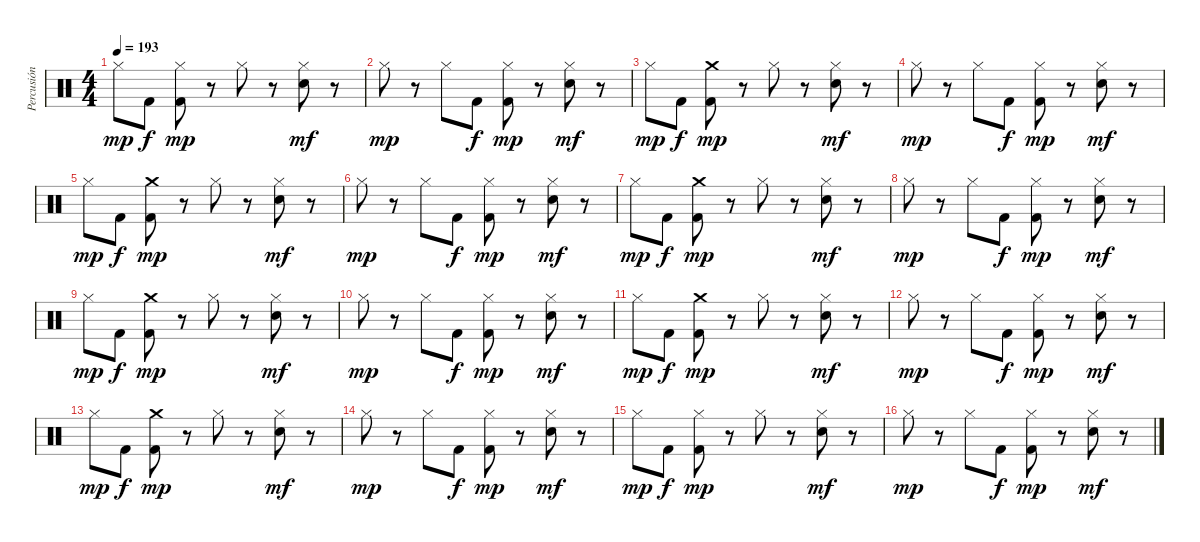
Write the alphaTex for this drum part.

\track ("Percusión" "Percusión") {instrument percussion}
\staff {score}
\articulation defaults
\ts (4 4)
\tempo 193
\clef neutral
\ks c "Hi-Hat (closed)".8{dy mp} "Kick (hit) 2".8{dy f}
("Hi-Hat (closed)" "Kick (hit) 2").8{dy mp} r.8 "Hi-Hat (closed)".8 r.8 ("Hi-Hat (closed)" "Electric Snare (hit)").8{dy mf} r.8 |
"Hi-Hat (closed)".8{dy mp} r.8 "Hi-Hat (closed)".8 "Kick (hit) 2".8{dy f} ("Hi-Hat (closed)" "Kick (hit) 2").8{dy mp} r.8 ("Hi-Hat (closed)" "Electric Snare (hit)").8{dy mf} r.8 |
"Hi-Hat (closed)".8{dy mp} "Kick (hit) 2".8{dy f} ("Crash medium (hit)" "Kick (hit) 2").8{dy mp} r.8 "Hi-Hat (closed)".8 r.8 ("Hi-Hat (closed)" "Electric Snare (hit)").8{dy mf} r.8 |
"Hi-Hat (closed)".8{dy mp} r.8 "Hi-Hat (closed)".8 "Kick (hit) 2".8{dy f} ("Hi-Hat (closed)" "Kick (hit) 2").8{dy mp} r.8 ("Hi-Hat (closed)" "Electric Snare (hit)").8{dy mf} r.8 |
"Hi-Hat (closed)".8{dy mp} "Kick (hit) 2".8{dy f} ("Crash medium (hit)" "Kick (hit) 2").8{dy mp} r.8 "Hi-Hat (closed)".8 r.8 ("Hi-Hat (closed)" "Electric Snare (hit)").8{dy mf} r.8 |
"Hi-Hat (closed)".8{dy mp} r.8 "Hi-Hat (closed)".8 "Kick (hit) 2".8{dy f} ("Hi-Hat (closed)" "Kick (hit) 2").8{dy mp} r.8 ("Hi-Hat (closed)" "Electric Snare (hit)").8{dy mf} r.8 |
"Hi-Hat (closed)".8{dy mp} "Kick (hit) 2".8{dy f} ("Crash medium (hit)" "Kick (hit) 2").8{dy mp} r.8 "Hi-Hat (closed)".8 r.8 ("Hi-Hat (closed)" "Electric Snare (hit)").8{dy mf} r.8 |
"Hi-Hat (closed)".8{dy mp} r.8 "Hi-Hat (closed)".8 "Kick (hit) 2".8{dy f} ("Hi-Hat (closed)" "Kick (hit) 2").8{dy mp} r.8 ("Hi-Hat (closed)" "Electric Snare (hit)").8{dy mf} r.8 |
"Hi-Hat (closed)".8{dy mp} "Kick (hit) 2".8{dy f} ("Crash medium (hit)" "Kick (hit) 2").8{dy mp} r.8 "Hi-Hat (closed)".8 r.8 ("Hi-Hat (closed)" "Electric Snare (hit)").8{dy mf} r.8 |
"Hi-Hat (closed)".8{dy mp} r.8 "Hi-Hat (closed)".8 "Kick (hit) 2".8{dy f} ("Hi-Hat (closed)" "Kick (hit) 2").8{dy mp} r.8 ("Hi-Hat (closed)" "Electric Snare (hit)").8{dy mf} r.8 |
"Hi-Hat (closed)".8{dy mp} "Kick (hit) 2".8{dy f} ("Crash medium (hit)" "Kick (hit) 2").8{dy mp} r.8 "Hi-Hat (closed)".8 r.8 ("Hi-Hat (closed)" "Electric Snare (hit)").8{dy mf} r.8 |
"Hi-Hat (closed)".8{dy mp} r.8 "Hi-Hat (closed)".8 "Kick (hit) 2".8{dy f} ("Hi-Hat (closed)" "Kick (hit) 2").8{dy mp} r.8 ("Hi-Hat (closed)" "Electric Snare (hit)").8{dy mf} r.8 |
"Hi-Hat (closed)".8{dy mp} "Kick (hit) 2".8{dy f} ("Crash medium (hit)" "Kick (hit) 2").8{dy mp} r.8 "Hi-Hat (closed)".8 r.8 ("Hi-Hat (closed)" "Electric Snare (hit)").8{dy mf} r.8 |
"Hi-Hat (closed)".8{dy mp} r.8 "Hi-Hat (closed)".8 "Kick (hit) 2".8{dy f} ("Hi-Hat (closed)" "Kick (hit) 2").8{dy mp} r.8 ("Hi-Hat (closed)" "Electric Snare (hit)").8{dy mf} r.8 |
"Hi-Hat (closed)".8{dy mp} "Kick (hit) 2".8{dy f} ("Hi-Hat (closed)" "Kick (hit) 2").8{dy mp} r.8 "Hi-Hat (closed)".8 r.8 ("Hi-Hat (closed)" "Electric Snare (hit)").8{dy mf} r.8 |
"Hi-Hat (closed)".8{dy mp} r.8 "Hi-Hat (closed)".8 "Kick (hit) 2".8{dy f} ("Hi-Hat (closed)" "Kick (hit) 2").8{dy mp} r.8 ("Hi-Hat (closed)" "Electric Snare (hit)").8{dy mf} r.8
